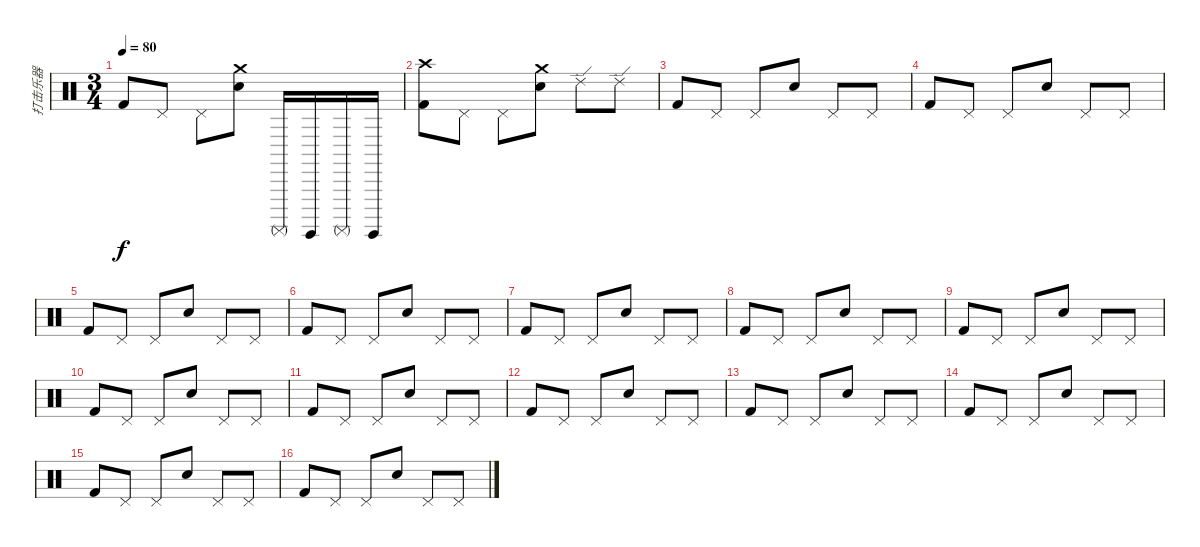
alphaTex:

\track ("打击乐器" "打击乐器") {instrument percussion}
\staff {score}
\articulation defaults
\ts (3 4)
\tempo 80
\clef neutral
\ks c "Kick (hit) 2".8{dy f} "Pedal Hi-Hat (hit)".8 "Pedal Hi-Hat (hit)".8
("Crash medium (hit)" "Snare (hit) 2").8 "Surdo (mute)".16 "Surdo (hit)".16 "Surdo (mute)".16 "Surdo (hit)".16 |
("Crash high (hit)" "Kick (hit) 2").8 "Pedal Hi-Hat (hit)".8 "Pedal Hi-Hat (hit)".8 ("Crash medium (hit)" "Snare (hit) 2").8 "Ride (edge) 2".8 "Ride (edge) 2".8 |
"Kick (hit) 2".8{volume 12} "Pedal Hi-Hat (hit)".8{volume 6} "Pedal Hi-Hat (hit)".8{volume 7} "Snare (hit) 2".8{volume 12} "Pedal Hi-Hat (hit)".8{volume 7} "Pedal Hi-Hat (hit)".8{volume 7} |
"Kick (hit) 2".8{volume 12} "Pedal Hi-Hat (hit)".8{volume 6} "Pedal Hi-Hat (hit)".8{volume 7} "Snare (hit) 2".8{volume 12} "Pedal Hi-Hat (hit)".8{volume 7} "Pedal Hi-Hat (hit)".8{volume 7} |
"Kick (hit) 2".8{volume 12} "Pedal Hi-Hat (hit)".8{volume 6} "Pedal Hi-Hat (hit)".8{volume 7} "Snare (hit) 2".8{volume 12} "Pedal Hi-Hat (hit)".8{volume 7} "Pedal Hi-Hat (hit)".8{volume 7} |
"Kick (hit) 2".8{volume 12} "Pedal Hi-Hat (hit)".8{volume 6} "Pedal Hi-Hat (hit)".8{volume 7} "Snare (hit) 2".8{volume 12} "Pedal Hi-Hat (hit)".8{volume 7} "Pedal Hi-Hat (hit)".8{volume 7} |
"Kick (hit) 2".8{volume 12} "Pedal Hi-Hat (hit)".8{volume 6} "Pedal Hi-Hat (hit)".8{volume 7} "Snare (hit) 2".8{volume 12} "Pedal Hi-Hat (hit)".8{volume 7} "Pedal Hi-Hat (hit)".8{volume 7} |
"Kick (hit) 2".8{volume 12} "Pedal Hi-Hat (hit)".8{volume 6} "Pedal Hi-Hat (hit)".8{volume 7} "Snare (hit) 2".8{volume 12} "Pedal Hi-Hat (hit)".8{volume 7} "Pedal Hi-Hat (hit)".8{volume 7} |
"Kick (hit) 2".8{volume 12} "Pedal Hi-Hat (hit)".8{volume 6} "Pedal Hi-Hat (hit)".8{volume 7} "Snare (hit) 2".8{volume 12} "Pedal Hi-Hat (hit)".8{volume 7} "Pedal Hi-Hat (hit)".8{volume 7} |
"Kick (hit) 2".8{volume 12} "Pedal Hi-Hat (hit)".8{volume 6} "Pedal Hi-Hat (hit)".8{volume 7} "Snare (hit) 2".8{volume 12} "Pedal Hi-Hat (hit)".8{volume 7} "Pedal Hi-Hat (hit)".8{volume 7} |
"Kick (hit) 2".8{volume 12} "Pedal Hi-Hat (hit)".8{volume 6} "Pedal Hi-Hat (hit)".8{volume 7} "Snare (hit) 2".8{volume 12} "Pedal Hi-Hat (hit)".8{volume 7} "Pedal Hi-Hat (hit)".8{volume 7} |
"Kick (hit) 2".8{volume 12} "Pedal Hi-Hat (hit)".8{volume 6} "Pedal Hi-Hat (hit)".8{volume 7} "Snare (hit) 2".8{volume 12} "Pedal Hi-Hat (hit)".8{volume 7} "Pedal Hi-Hat (hit)".8{volume 7} |
"Kick (hit) 2".8{volume 12} "Pedal Hi-Hat (hit)".8{volume 6} "Pedal Hi-Hat (hit)".8{volume 7} "Snare (hit) 2".8{volume 12} "Pedal Hi-Hat (hit)".8{volume 7} "Pedal Hi-Hat (hit)".8{volume 7} |
"Kick (hit) 2".8{volume 12} "Pedal Hi-Hat (hit)".8{volume 6} "Pedal Hi-Hat (hit)".8{volume 7} "Snare (hit) 2".8{volume 12} "Pedal Hi-Hat (hit)".8{volume 7} "Pedal Hi-Hat (hit)".8{volume 7} |
"Kick (hit) 2".8{volume 12} "Pedal Hi-Hat (hit)".8{volume 6} "Pedal Hi-Hat (hit)".8{volume 7} "Snare (hit) 2".8{volume 12} "Pedal Hi-Hat (hit)".8{volume 7} "Pedal Hi-Hat (hit)".8{volume 7} |
"Kick (hit) 2".8{volume 12} "Pedal Hi-Hat (hit)".8{volume 6} "Pedal Hi-Hat (hit)".8{volume 7} "Snare (hit) 2".8{volume 12} "Pedal Hi-Hat (hit)".8{volume 7} "Pedal Hi-Hat (hit)".8{volume 7}
